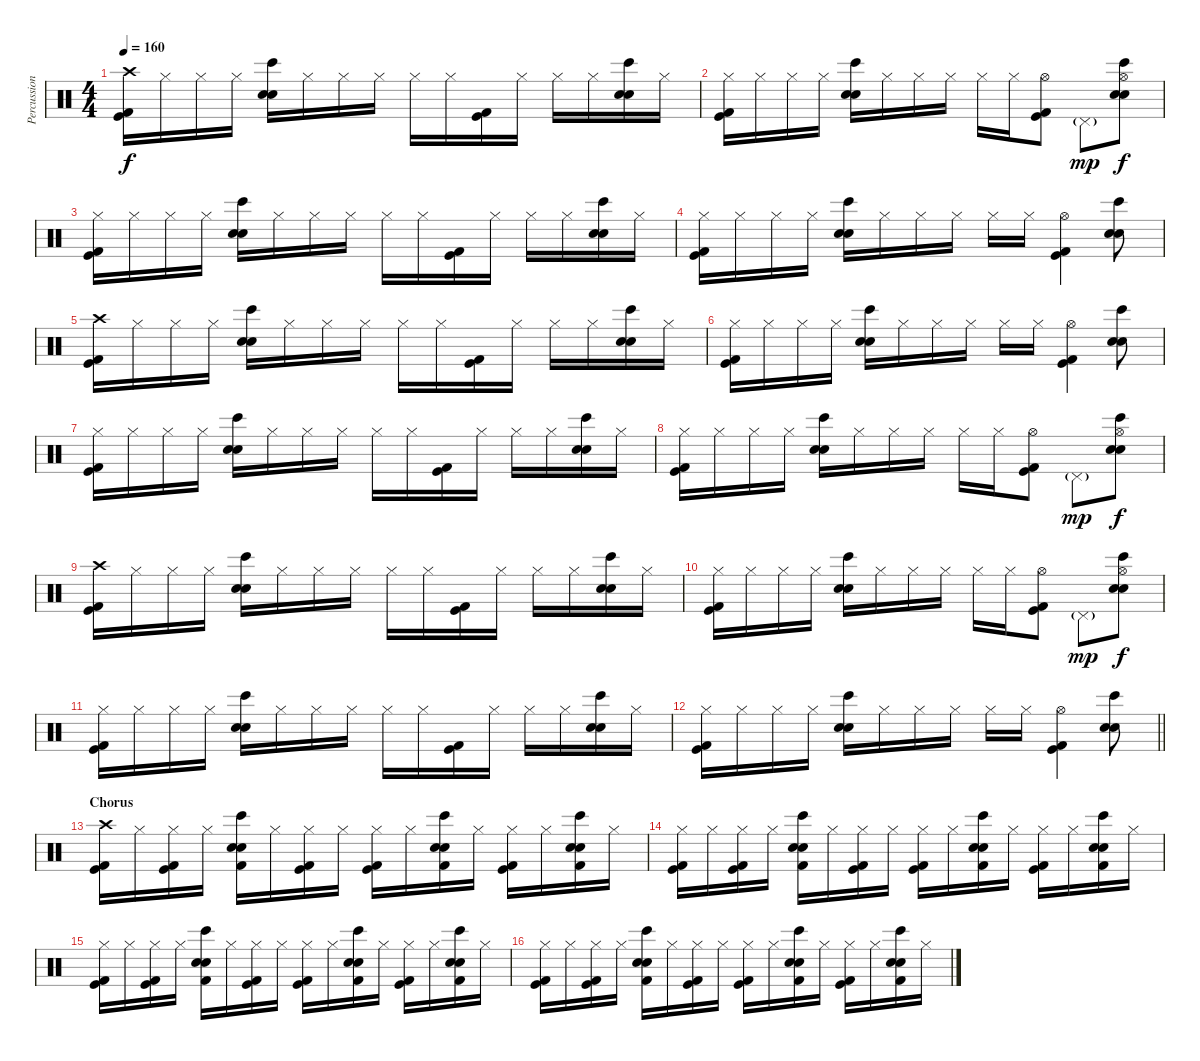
\track ("Percussion" "Percussion") {instrument percussion}
\staff {score}
\articulation defaults
\ts (4 4)
\tempo 160
\clef neutral
\ks c
("Crash high (hit)" "Kick (hit)" "Kick (hit) 2").16{dy f} "Hi-Hat (closed)".16 "Hi-Hat (closed)".16 "Hi-Hat (closed)".16 ("Hand Clap (hit)" "Bongo High (hit)" "Electric Snare (hit)").16 "Hi-Hat (closed)".16 "Hi-Hat (closed)".16 "Hi-Hat (closed)".16 "Hi-Hat (closed)".16 "Hi-Hat (closed)".16 ("Kick (hit)" "Kick (hit) 2").16 "Hi-Hat (closed)".16 "Hi-Hat (closed)".16 "Hi-Hat (closed)".16 ("Hand Clap (hit)" "Bongo High (hit)" "Electric Snare (hit)").16 "Hi-Hat (closed)".16 |
("Hi-Hat (closed)" "Kick (hit)" "Kick (hit) 2").16 "Hi-Hat (closed)".16 "Hi-Hat (closed)".16 "Hi-Hat (closed)".16 ("Hand Clap (hit)" "Bongo High (hit)" "Electric Snare (hit)").16 "Hi-Hat (closed)".16 "Hi-Hat (closed)".16 "Hi-Hat (closed)".16 "Hi-Hat (closed)".16 "Hi-Hat (closed)".16 ("Hi-Hat (open)" "Kick (hit)" "Kick (hit) 2").8 "Pedal Hi-Hat (hit)"{g}.8{dy mp} ("Hi-Hat (open)" "Hand Clap (hit)" "Bongo High (hit)" "Electric Snare (hit)").8{dy f} |
("Hi-Hat (closed)" "Kick (hit)" "Kick (hit) 2").16 "Hi-Hat (closed)".16 "Hi-Hat (closed)".16 "Hi-Hat (closed)".16 ("Hand Clap (hit)" "Bongo High (hit)" "Electric Snare (hit)").16 "Hi-Hat (closed)".16 "Hi-Hat (closed)".16 "Hi-Hat (closed)".16 "Hi-Hat (closed)".16 "Hi-Hat (closed)".16 ("Kick (hit)" "Kick (hit) 2").16 "Hi-Hat (closed)".16 "Hi-Hat (closed)".16 "Hi-Hat (closed)".16 ("Hand Clap (hit)" "Bongo High (hit)" "Electric Snare (hit)").16 "Hi-Hat (closed)".16 |
("Hi-Hat (closed)" "Kick (hit)" "Kick (hit) 2").16 "Hi-Hat (closed)".16 "Hi-Hat (closed)".16 "Hi-Hat (closed)".16 ("Hand Clap (hit)" "Bongo High (hit)" "Electric Snare (hit)").16 "Hi-Hat (closed)".16 "Hi-Hat (closed)".16 "Hi-Hat (closed)".16 "Hi-Hat (closed)".16 "Hi-Hat (closed)".16 ("Hi-Hat (open)" "Kick (hit)" "Kick (hit) 2").4 ("Hand Clap (hit)" "Bongo High (hit)" "Electric Snare (hit)").8 |
("Crash high (hit)" "Kick (hit)" "Kick (hit) 2").16 "Hi-Hat (closed)".16 "Hi-Hat (closed)".16 "Hi-Hat (closed)".16 ("Hand Clap (hit)" "Bongo High (hit)" "Electric Snare (hit)").16 "Hi-Hat (closed)".16 "Hi-Hat (closed)".16 "Hi-Hat (closed)".16 "Hi-Hat (closed)".16 "Hi-Hat (closed)".16 ("Kick (hit)" "Kick (hit) 2").16 "Hi-Hat (closed)".16 "Hi-Hat (closed)".16 "Hi-Hat (closed)".16 ("Hand Clap (hit)" "Bongo High (hit)" "Electric Snare (hit)").16 "Hi-Hat (closed)".16 |
("Hi-Hat (closed)" "Kick (hit)" "Kick (hit) 2").16 "Hi-Hat (closed)".16 "Hi-Hat (closed)".16 "Hi-Hat (closed)".16 ("Hand Clap (hit)" "Bongo High (hit)" "Electric Snare (hit)").16 "Hi-Hat (closed)".16 "Hi-Hat (closed)".16 "Hi-Hat (closed)".16 "Hi-Hat (closed)".16 "Hi-Hat (closed)".16 ("Hi-Hat (open)" "Kick (hit)" "Kick (hit) 2").4 ("Hand Clap (hit)" "Bongo High (hit)" "Electric Snare (hit)").8 |
("Hi-Hat (closed)" "Kick (hit)" "Kick (hit) 2").16 "Hi-Hat (closed)".16 "Hi-Hat (closed)".16 "Hi-Hat (closed)".16 ("Hand Clap (hit)" "Bongo High (hit)" "Electric Snare (hit)").16 "Hi-Hat (closed)".16 "Hi-Hat (closed)".16 "Hi-Hat (closed)".16 "Hi-Hat (closed)".16 "Hi-Hat (closed)".16 ("Kick (hit)" "Kick (hit) 2").16 "Hi-Hat (closed)".16 "Hi-Hat (closed)".16 "Hi-Hat (closed)".16 ("Hand Clap (hit)" "Bongo High (hit)" "Electric Snare (hit)").16 "Hi-Hat (closed)".16 |
("Hi-Hat (closed)" "Kick (hit)" "Kick (hit) 2").16 "Hi-Hat (closed)".16 "Hi-Hat (closed)".16 "Hi-Hat (closed)".16 ("Hand Clap (hit)" "Bongo High (hit)" "Electric Snare (hit)").16 "Hi-Hat (closed)".16 "Hi-Hat (closed)".16 "Hi-Hat (closed)".16 "Hi-Hat (closed)".16 "Hi-Hat (closed)".16 ("Hi-Hat (open)" "Kick (hit)" "Kick (hit) 2").8 "Pedal Hi-Hat (hit)"{g}.8{dy mp} ("Hi-Hat (open)" "Hand Clap (hit)" "Bongo High (hit)" "Electric Snare (hit)").8{dy f} |
("Crash high (hit)" "Kick (hit)" "Kick (hit) 2").16 "Hi-Hat (closed)".16 "Hi-Hat (closed)".16 "Hi-Hat (closed)".16 ("Hand Clap (hit)" "Bongo High (hit)" "Electric Snare (hit)").16 "Hi-Hat (closed)".16 "Hi-Hat (closed)".16 "Hi-Hat (closed)".16 "Hi-Hat (closed)".16 "Hi-Hat (closed)".16 ("Kick (hit)" "Kick (hit) 2").16 "Hi-Hat (closed)".16 "Hi-Hat (closed)".16 "Hi-Hat (closed)".16 ("Hand Clap (hit)" "Bongo High (hit)" "Electric Snare (hit)").16 "Hi-Hat (closed)".16 |
("Hi-Hat (closed)" "Kick (hit)" "Kick (hit) 2").16 "Hi-Hat (closed)".16 "Hi-Hat (closed)".16 "Hi-Hat (closed)".16 ("Hand Clap (hit)" "Bongo High (hit)" "Electric Snare (hit)").16 "Hi-Hat (closed)".16 "Hi-Hat (closed)".16 "Hi-Hat (closed)".16 "Hi-Hat (closed)".16 "Hi-Hat (closed)".16 ("Hi-Hat (open)" "Kick (hit)" "Kick (hit) 2").8 "Pedal Hi-Hat (hit)"{g}.8{dy mp} ("Hi-Hat (open)" "Hand Clap (hit)" "Bongo High (hit)" "Electric Snare (hit)").8{dy f} |
("Hi-Hat (closed)" "Kick (hit)" "Kick (hit) 2").16 "Hi-Hat (closed)".16 "Hi-Hat (closed)".16 "Hi-Hat (closed)".16 ("Hand Clap (hit)" "Bongo High (hit)" "Electric Snare (hit)").16 "Hi-Hat (closed)".16 "Hi-Hat (closed)".16 "Hi-Hat (closed)".16 "Hi-Hat (closed)".16 "Hi-Hat (closed)".16 ("Kick (hit)" "Kick (hit) 2").16 "Hi-Hat (closed)".16 "Hi-Hat (closed)".16 "Hi-Hat (closed)".16 ("Hand Clap (hit)" "Bongo High (hit)" "Electric Snare (hit)").16 "Hi-Hat (closed)".16 |
\barLineRight lightlight
("Hi-Hat (closed)" "Kick (hit)" "Kick (hit) 2").16 "Hi-Hat (closed)".16 "Hi-Hat (closed)".16 "Hi-Hat (closed)".16 ("Hand Clap (hit)" "Bongo High (hit)" "Electric Snare (hit)").16 "Hi-Hat (closed)".16 "Hi-Hat (closed)".16 "Hi-Hat (closed)".16 "Hi-Hat (closed)".16 "Hi-Hat (closed)".16 ("Hi-Hat (open)" "Kick (hit)" "Kick (hit) 2").4 ("Hand Clap (hit)" "Bongo High (hit)" "Electric Snare (hit)").8 |
\section ("" "Chorus")
("Crash high (hit)" "Kick (hit)" "Kick (hit) 2").16 "Hi-Hat (closed)".16 ("Hi-Hat (closed)" "Kick (hit)" "Kick (hit) 2").16 "Hi-Hat (closed)".16 ("Hand Clap (hit)" "Bongo High (hit)" "Electric Snare (hit)" "Kick (hit) 2").16 "Hi-Hat (closed)".16 ("Hi-Hat (closed)" "Kick (hit)" "Kick (hit) 2").16 "Hi-Hat (closed)".16 ("Hi-Hat (closed)" "Kick (hit)" "Kick (hit) 2").16 "Hi-Hat (closed)".16 ("Hand Clap (hit)" "Bongo High (hit)" "Electric Snare (hit)" "Kick (hit) 2").16 "Hi-Hat (closed)".16 ("Hi-Hat (closed)" "Kick (hit)" "Kick (hit) 2").16 "Hi-Hat (closed)".16 ("Hand Clap (hit)" "Bongo High (hit)" "Electric Snare (hit)" "Kick (hit) 2").16 "Hi-Hat (closed)".16 |
("Hi-Hat (closed)" "Kick (hit)" "Kick (hit) 2").16 "Hi-Hat (closed)".16 ("Hi-Hat (closed)" "Kick (hit)" "Kick (hit) 2").16 "Hi-Hat (closed)".16 ("Hand Clap (hit)" "Bongo High (hit)" "Electric Snare (hit)" "Kick (hit) 2").16 "Hi-Hat (closed)".16 ("Hi-Hat (closed)" "Kick (hit)" "Kick (hit) 2").16 "Hi-Hat (closed)".16 ("Hi-Hat (closed)" "Kick (hit)" "Kick (hit) 2").16 "Hi-Hat (closed)".16 ("Hand Clap (hit)" "Bongo High (hit)" "Electric Snare (hit)" "Kick (hit) 2").16 "Hi-Hat (closed)".16 ("Hi-Hat (closed)" "Kick (hit)" "Kick (hit) 2").16 "Hi-Hat (closed)".16 ("Hand Clap (hit)" "Bongo High (hit)" "Electric Snare (hit)" "Kick (hit) 2").16 "Hi-Hat (closed)".16 |
("Hi-Hat (closed)" "Kick (hit)" "Kick (hit) 2").16 "Hi-Hat (closed)".16 ("Hi-Hat (closed)" "Kick (hit)" "Kick (hit) 2").16 "Hi-Hat (closed)".16 ("Hand Clap (hit)" "Bongo High (hit)" "Electric Snare (hit)" "Kick (hit) 2").16 "Hi-Hat (closed)".16 ("Hi-Hat (closed)" "Kick (hit)" "Kick (hit) 2").16 "Hi-Hat (closed)".16 ("Hi-Hat (closed)" "Kick (hit)" "Kick (hit) 2").16 "Hi-Hat (closed)".16 ("Hand Clap (hit)" "Bongo High (hit)" "Electric Snare (hit)" "Kick (hit) 2").16 "Hi-Hat (closed)".16 ("Hi-Hat (closed)" "Kick (hit)" "Kick (hit) 2").16 "Hi-Hat (closed)".16 ("Hand Clap (hit)" "Bongo High (hit)" "Electric Snare (hit)" "Kick (hit) 2").16 "Hi-Hat (closed)".16 |
("Hi-Hat (closed)" "Kick (hit)" "Kick (hit) 2").16 "Hi-Hat (closed)".16 ("Hi-Hat (closed)" "Kick (hit)" "Kick (hit) 2").16 "Hi-Hat (closed)".16 ("Hand Clap (hit)" "Bongo High (hit)" "Electric Snare (hit)" "Kick (hit) 2").16 "Hi-Hat (closed)".16 ("Hi-Hat (closed)" "Kick (hit)" "Kick (hit) 2").16 "Hi-Hat (closed)".16 ("Hi-Hat (closed)" "Kick (hit)" "Kick (hit) 2").16 "Hi-Hat (closed)".16 ("Hand Clap (hit)" "Bongo High (hit)" "Electric Snare (hit)" "Kick (hit) 2").16 "Hi-Hat (closed)".16 ("Hi-Hat (closed)" "Kick (hit)" "Kick (hit) 2").16 "Hi-Hat (closed)".16 ("Hand Clap (hit)" "Bongo High (hit)" "Electric Snare (hit)" "Kick (hit) 2").16 "Hi-Hat (closed)".16
